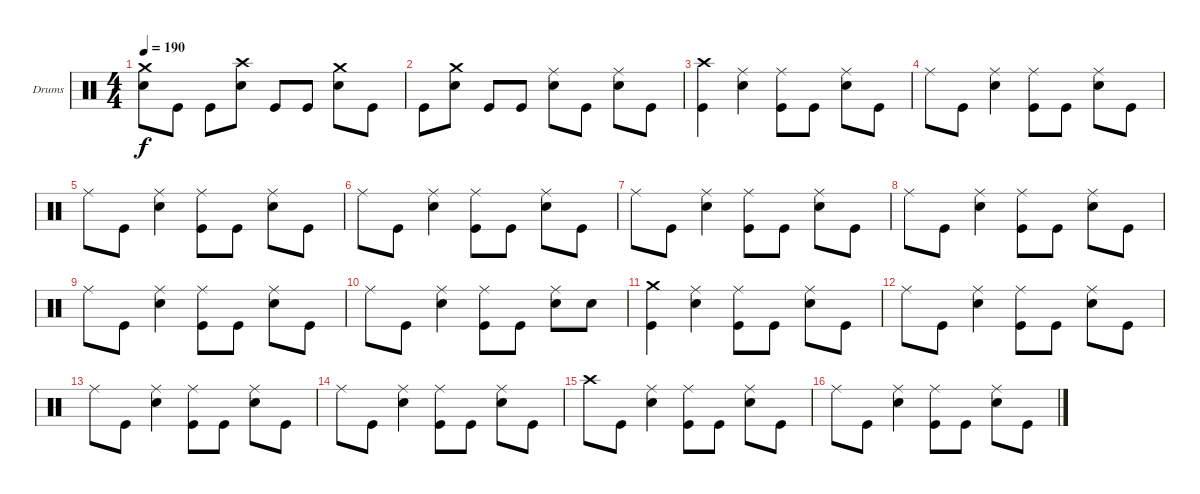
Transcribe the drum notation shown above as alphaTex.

\bracketExtendMode groupsimilarinstruments
\firstSystemTrackNameOrientation horizontal
\otherSystemsTrackNameOrientation horizontal
\track ("Максим Удалов" "Drums") {instrument percussion}
\staff {score}
\articulation defaults
\ts (4 4)
\tempo 190
\clef neutral
\ks c
("Snare (hit) 2" "Crash medium (hit)").8{dy f} "Kick (hit)".8 "Kick (hit)".8 ("Snare (hit) 2" "Crash high (hit)").8 "Kick (hit)".8 "Kick (hit)".8 ("Snare (hit) 2" "Crash medium (hit)").8 "Kick (hit)".8 |
"Kick (hit)".8 ("Snare (hit) 2" "Crash medium (hit)").8 "Kick (hit)".8 "Kick (hit)".8 ("Snare (hit) 2" "Ride (middle)").8 "Kick (hit)".8 ("Snare (hit) 2" "Ride (middle)").8 "Kick (hit)".8 |
("Kick (hit)" "Crash high (hit)").4 ("Snare (hit) 2" "Ride (middle)").4 ("Kick (hit)" "Ride (middle)").8 "Kick (hit)".8 ("Snare (hit) 2" "Ride (middle)").8 "Kick (hit)".8 |
"Ride (middle)".8 "Kick (hit)".8 ("Snare (hit) 2" "Ride (middle)").4 ("Kick (hit)" "Ride (middle)").8 "Kick (hit)".8 ("Snare (hit) 2" "Ride (middle)").8 "Kick (hit)".8 |
"Ride (middle)".8 "Kick (hit)".8 ("Snare (hit) 2" "Ride (middle)").4 ("Kick (hit)" "Ride (middle)").8 "Kick (hit)".8 ("Snare (hit) 2" "Ride (middle)").8 "Kick (hit)".8 |
"Ride (middle)".8 "Kick (hit)".8 ("Snare (hit) 2" "Ride (middle)").4 ("Kick (hit)" "Ride (middle)").8 "Kick (hit)".8 ("Snare (hit) 2" "Ride (middle)").8 "Kick (hit)".8 |
"Ride (middle)".8 "Kick (hit)".8 ("Snare (hit) 2" "Ride (middle)").4 ("Kick (hit)" "Ride (middle)").8 "Kick (hit)".8 ("Snare (hit) 2" "Ride (middle)").8 "Kick (hit)".8 |
"Ride (middle)".8 "Kick (hit)".8 ("Snare (hit) 2" "Ride (middle)").4 ("Kick (hit)" "Ride (middle)").8 "Kick (hit)".8 ("Snare (hit) 2" "Ride (middle)").8 "Kick (hit)".8 |
"Ride (middle)".8 "Kick (hit)".8 ("Snare (hit) 2" "Ride (middle)").4 ("Kick (hit)" "Ride (middle)").8 "Kick (hit)".8 ("Snare (hit) 2" "Ride (middle)").8 "Kick (hit)".8 |
"Ride (middle)".8 "Kick (hit)".8 ("Snare (hit) 2" "Ride (middle)").4 ("Kick (hit)" "Ride (middle)").8 "Kick (hit)".8 ("Snare (hit) 2" "Ride (middle)").8 "Snare (hit) 2".8 |
("Kick (hit)" "Crash medium (hit)").4 ("Snare (hit) 2" "Ride (middle)").4 ("Kick (hit)" "Ride (middle)").8 "Kick (hit)".8 ("Snare (hit) 2" "Ride (middle)").8 "Kick (hit)".8 |
"Ride (middle)".8 "Kick (hit)".8 ("Snare (hit) 2" "Ride (middle)").4 ("Kick (hit)" "Ride (middle)").8 "Kick (hit)".8 ("Snare (hit) 2" "Ride (middle)").8 "Kick (hit)".8 |
"Ride (middle)".8 "Kick (hit)".8 ("Snare (hit) 2" "Ride (middle)").4 ("Kick (hit)" "Ride (middle)").8 "Kick (hit)".8 ("Snare (hit) 2" "Ride (middle)").8 "Kick (hit)".8 |
"Ride (middle)".8 "Kick (hit)".8 ("Snare (hit) 2" "Ride (middle)").4 ("Kick (hit)" "Ride (middle)").8 "Kick (hit)".8 ("Snare (hit) 2" "Ride (middle)").8 "Kick (hit)".8 |
"Crash high (hit)".8 "Kick (hit)".8 ("Snare (hit) 2" "Ride (middle)").4 ("Kick (hit)" "Ride (middle)").8 "Kick (hit)".8 ("Snare (hit) 2" "Ride (middle)").8 "Kick (hit)".8 |
"Ride (middle)".8 "Kick (hit)".8 ("Snare (hit) 2" "Ride (middle)").4 ("Kick (hit)" "Ride (middle)").8 "Kick (hit)".8 ("Snare (hit) 2" "Ride (middle)").8 "Kick (hit)".8
